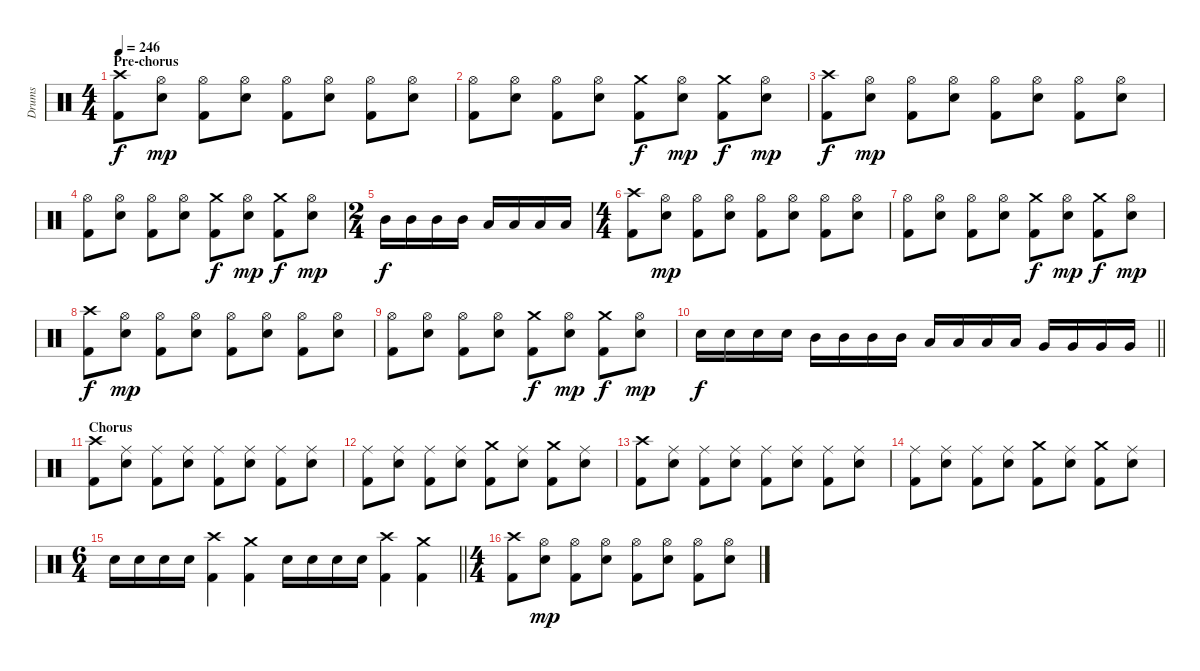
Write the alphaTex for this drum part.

\track ("Drums" "Drums") {instrument percussion}
\staff {score}
\articulation defaults
\ts (4 4)
\section ("" "Pre-chorus")
\tempo 246
\clef neutral
\ks c
("Crash high (hit)" "Kick (hit) 2").8{dy f} ("Hi-Hat (open)" "Snare (hit) 2").8{dy mp} ("Hi-Hat (open)" "Kick (hit) 2").8 ("Hi-Hat (open)" "Snare (hit) 2").8 ("Hi-Hat (open)" "Kick (hit) 2").8 ("Hi-Hat (open)" "Snare (hit) 2").8 ("Hi-Hat (open)" "Kick (hit) 2").8 ("Hi-Hat (open)" "Snare (hit) 2").8 |
("Hi-Hat (open)" "Kick (hit) 2").8 ("Hi-Hat (open)" "Snare (hit) 2").8 ("Hi-Hat (open)" "Kick (hit) 2").8 ("Hi-Hat (open)" "Snare (hit) 2").8 ("Crash medium (hit)" "Kick (hit) 2").8{dy f} ("Hi-Hat (open)" "Snare (hit) 2").8{dy mp} ("Crash medium (hit)" "Kick (hit) 2").8{dy f} ("Hi-Hat (open)" "Snare (hit) 2").8{dy mp} |
("Crash high (hit)" "Kick (hit) 2").8{dy f} ("Hi-Hat (open)" "Snare (hit) 2").8{dy mp} ("Hi-Hat (open)" "Kick (hit) 2").8 ("Hi-Hat (open)" "Snare (hit) 2").8 ("Hi-Hat (open)" "Kick (hit) 2").8 ("Hi-Hat (open)" "Snare (hit) 2").8 ("Hi-Hat (open)" "Kick (hit) 2").8 ("Hi-Hat (open)" "Snare (hit) 2").8 |
("Hi-Hat (open)" "Kick (hit) 2").8 ("Hi-Hat (open)" "Snare (hit) 2").8 ("Hi-Hat (open)" "Kick (hit) 2").8 ("Hi-Hat (open)" "Snare (hit) 2").8 ("Crash medium (hit)" "Kick (hit) 2").8{dy f} ("Hi-Hat (open)" "Snare (hit) 2").8{dy mp} ("Crash medium (hit)" "Kick (hit) 2").8{dy f} ("Hi-Hat (open)" "Snare (hit) 2").8{dy mp} |
\ts (2 4)
"Mid Tom (hit)".16{dy f} "Mid Tom (hit)".16 "Mid Tom (hit)".16 "Mid Tom (hit)".16 "Low Tom (hit)".16 "Low Tom (hit)".16 "Low Tom (hit)".16 "Low Tom (hit)".16 |
\ts (4 4)
("Crash high (hit)" "Kick (hit) 2").8 ("Hi-Hat (open)" "Snare (hit) 2").8{dy mp} ("Hi-Hat (open)" "Kick (hit) 2").8 ("Hi-Hat (open)" "Snare (hit) 2").8 ("Hi-Hat (open)" "Kick (hit) 2").8 ("Hi-Hat (open)" "Snare (hit) 2").8 ("Hi-Hat (open)" "Kick (hit) 2").8 ("Hi-Hat (open)" "Snare (hit) 2").8 |
("Hi-Hat (open)" "Kick (hit) 2").8 ("Hi-Hat (open)" "Snare (hit) 2").8 ("Hi-Hat (open)" "Kick (hit) 2").8 ("Hi-Hat (open)" "Snare (hit) 2").8 ("Crash medium (hit)" "Kick (hit) 2").8{dy f} ("Hi-Hat (open)" "Snare (hit) 2").8{dy mp} ("Crash medium (hit)" "Kick (hit) 2").8{dy f} ("Hi-Hat (open)" "Snare (hit) 2").8{dy mp} |
("Crash high (hit)" "Kick (hit) 2").8{dy f} ("Hi-Hat (open)" "Snare (hit) 2").8{dy mp} ("Hi-Hat (open)" "Kick (hit) 2").8 ("Hi-Hat (open)" "Snare (hit) 2").8 ("Hi-Hat (open)" "Kick (hit) 2").8 ("Hi-Hat (open)" "Snare (hit) 2").8 ("Hi-Hat (open)" "Kick (hit) 2").8 ("Hi-Hat (open)" "Snare (hit) 2").8 |
("Hi-Hat (open)" "Kick (hit) 2").8 ("Hi-Hat (open)" "Snare (hit) 2").8 ("Hi-Hat (open)" "Kick (hit) 2").8 ("Hi-Hat (open)" "Snare (hit) 2").8 ("Crash medium (hit)" "Kick (hit) 2").8{dy f} ("Hi-Hat (open)" "Snare (hit) 2").8{dy mp} ("Crash medium (hit)" "Kick (hit) 2").8{dy f} ("Hi-Hat (open)" "Snare (hit) 2").8{dy mp} |
\barLineRight lightlight "Snare (hit) 2".16{dy f} "Snare (hit) 2".16 "Snare (hit) 2".16 "Snare (hit) 2".16 "Mid Tom (hit)".16 "Mid Tom (hit)".16 "Mid Tom (hit)".16 "Mid Tom (hit)".16 "Low Tom (hit)".16 "Low Tom (hit)".16 "Low Tom (hit)".16 "Low Tom (hit)".16 "Very Low Tom (hit)".16 "Very Low Tom (hit)".16 "Very Low Tom (hit)".16 "Very Low Tom (hit)".16
|
\section ("" "Chorus")
("Crash high (hit)" "Kick (hit) 2").8 ("Ride (middle)" "Snare (hit) 2").8 ("Ride (middle)" "Kick (hit) 2").8 ("Ride (middle)" "Snare (hit) 2").8 ("Ride (middle)" "Kick (hit) 2").8 ("Ride (middle)" "Snare (hit) 2").8 ("Ride (middle)" "Kick (hit) 2").8 ("Ride (middle)" "Snare (hit) 2").8 |
("Ride (middle)" "Kick (hit) 2").8 ("Ride (middle)" "Snare (hit) 2").8 ("Ride (middle)" "Kick (hit) 2").8 ("Ride (middle)" "Snare (hit) 2").8 ("Crash medium (hit)" "Kick (hit) 2").8 ("Ride (middle)" "Snare (hit) 2").8 ("Crash medium (hit)" "Kick (hit) 2").8 ("Ride (middle)" "Snare (hit) 2").8 |
("Crash high (hit)" "Kick (hit) 2").8 ("Ride (middle)" "Snare (hit) 2").8 ("Ride (middle)" "Kick (hit) 2").8 ("Ride (middle)" "Snare (hit) 2").8 ("Ride (middle)" "Kick (hit) 2").8 ("Ride (middle)" "Snare (hit) 2").8 ("Ride (middle)" "Kick (hit) 2").8 ("Ride (middle)" "Snare (hit) 2").8 |
("Ride (middle)" "Kick (hit) 2").8 ("Ride (middle)" "Snare (hit) 2").8 ("Ride (middle)" "Kick (hit) 2").8 ("Ride (middle)" "Snare (hit) 2").8 ("Crash medium (hit)" "Kick (hit) 2").8 ("Ride (middle)" "Snare (hit) 2").8 ("Crash medium (hit)" "Kick (hit) 2").8 ("Ride (middle)" "Snare (hit) 2").8 |
\ts (6 4)
\barLineRight lightlight "Snare (hit) 2".16 "Snare (hit) 2".16 "Snare (hit) 2".16 "Snare (hit) 2".16
("Crash high (hit)" "Kick (hit) 2").4 ("Crash medium (hit)" "Kick (hit) 2").4 "Snare (hit) 2".16 "Snare (hit) 2".16 "Snare (hit) 2".16 "Snare (hit) 2".16 ("Crash high (hit)" "Kick (hit) 2").4 ("Crash medium (hit)" "Kick (hit) 2").4 |
\ts (4 4)
\section ("" "")
("Crash high (hit)" "Kick (hit) 2").8 ("Hi-Hat (open)" "Snare (hit) 2").8{dy mp} ("Hi-Hat (open)" "Kick (hit) 2").8 ("Hi-Hat (open)" "Snare (hit) 2").8 ("Hi-Hat (open)" "Kick (hit) 2").8 ("Hi-Hat (open)" "Snare (hit) 2").8 ("Hi-Hat (open)" "Kick (hit) 2").8 ("Hi-Hat (open)" "Snare (hit) 2").8
